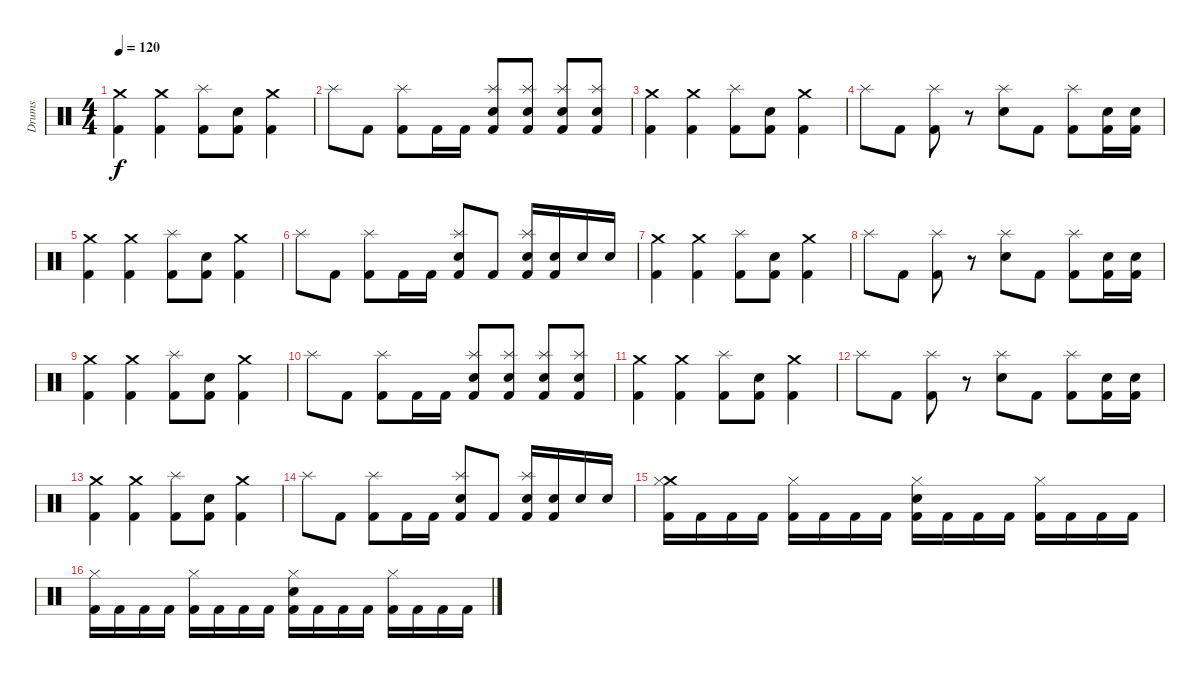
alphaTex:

\track ("Drums" "Drums") {instrument percussion}
\staff {score}
\articulation defaults
\ts (4 4)
\tempo 120
\clef neutral
\ks c
("Crash medium (hit)" "Kick (hit) 2").4{dy f} ("Crash medium (hit)" "Kick (hit) 2").4 ("Splash (hit)" "Kick (hit) 2").8 ("Snare (hit) 2" "Kick (hit) 2").8 ("Crash medium (hit)" "Kick (hit) 2").4 |
"Splash (hit)".8 "Kick (hit) 2".8 ("Splash (hit)" "Kick (hit) 2").8 "Kick (hit) 2".16 "Kick (hit) 2".16 ("Snare (hit) 2" "Splash (hit)" "Kick (hit) 2").8 ("Snare (hit) 2" "Splash (hit)" "Kick (hit) 2").8 ("Snare (hit) 2" "Splash (hit)" "Kick (hit) 2").8 ("Snare (hit) 2" "Splash (hit)" "Kick (hit) 2").8 |
("Crash medium (hit)" "Kick (hit) 2").4 ("Crash medium (hit)" "Kick (hit) 2").4 ("Splash (hit)" "Kick (hit) 2").8 ("Snare (hit) 2" "Kick (hit) 2").8 ("Crash medium (hit)" "Kick (hit) 2").4 |
"Splash (hit)".8 "Kick (hit) 2".8 ("Splash (hit)" "Kick (hit) 2").8 r.8 ("Snare (hit) 2" "Splash (hit)").8 "Kick (hit) 2".8 ("Splash (hit)" "Kick (hit) 2").8 ("Snare (hit) 2" "Kick (hit) 2").16 ("Snare (hit) 2" "Kick (hit) 2").16 |
("Crash medium (hit)" "Kick (hit) 2").4 ("Crash medium (hit)" "Kick (hit) 2").4 ("Splash (hit)" "Kick (hit) 2").8 ("Snare (hit) 2" "Kick (hit) 2").8 ("Crash medium (hit)" "Kick (hit) 2").4 |
"Splash (hit)".8 "Kick (hit) 2".8 ("Splash (hit)" "Kick (hit) 2").8 "Kick (hit) 2".16 "Kick (hit) 2".16 ("Snare (hit) 2" "Splash (hit)" "Kick (hit) 2").8 "Kick (hit) 2".8 ("Snare (hit) 2" "Splash (hit)" "Kick (hit) 2").16 ("Snare (hit) 2" "Kick (hit) 2").16 "Snare (hit) 2".16 "Snare (hit) 2".16 |
("Crash medium (hit)" "Kick (hit) 2").4 ("Crash medium (hit)" "Kick (hit) 2").4 ("Splash (hit)" "Kick (hit) 2").8 ("Snare (hit) 2" "Kick (hit) 2").8 ("Crash medium (hit)" "Kick (hit) 2").4 |
"Splash (hit)".8 "Kick (hit) 2".8 ("Splash (hit)" "Kick (hit) 2").8 r.8 ("Snare (hit) 2" "Splash (hit)").8 "Kick (hit) 2".8 ("Splash (hit)" "Kick (hit) 2").8 ("Snare (hit) 2" "Kick (hit) 2").16 ("Snare (hit) 2" "Kick (hit) 2").16 |
("Crash medium (hit)" "Kick (hit) 2").4 ("Crash medium (hit)" "Kick (hit) 2").4 ("Splash (hit)" "Kick (hit) 2").8 ("Snare (hit) 2" "Kick (hit) 2").8 ("Crash medium (hit)" "Kick (hit) 2").4 |
"Splash (hit)".8 "Kick (hit) 2".8 ("Splash (hit)" "Kick (hit) 2").8 "Kick (hit) 2".16 "Kick (hit) 2".16 ("Snare (hit) 2" "Splash (hit)" "Kick (hit) 2").8 ("Snare (hit) 2" "Splash (hit)" "Kick (hit) 2").8 ("Snare (hit) 2" "Splash (hit)" "Kick (hit) 2").8 ("Snare (hit) 2" "Splash (hit)" "Kick (hit) 2").8 |
("Crash medium (hit)" "Kick (hit) 2").4 ("Crash medium (hit)" "Kick (hit) 2").4 ("Splash (hit)" "Kick (hit) 2").8 ("Snare (hit) 2" "Kick (hit) 2").8 ("Crash medium (hit)" "Kick (hit) 2").4 |
"Splash (hit)".8 "Kick (hit) 2".8 ("Splash (hit)" "Kick (hit) 2").8 r.8 ("Snare (hit) 2" "Splash (hit)").8 "Kick (hit) 2".8 ("Splash (hit)" "Kick (hit) 2").8 ("Snare (hit) 2" "Kick (hit) 2").16 ("Snare (hit) 2" "Kick (hit) 2").16 |
("Crash medium (hit)" "Kick (hit) 2").4 ("Crash medium (hit)" "Kick (hit) 2").4 ("Splash (hit)" "Kick (hit) 2").8 ("Snare (hit) 2" "Kick (hit) 2").8 ("Crash medium (hit)" "Kick (hit) 2").4 |
"Splash (hit)".8 "Kick (hit) 2".8 ("Splash (hit)" "Kick (hit) 2").8 "Kick (hit) 2".16 "Kick (hit) 2".16 ("Snare (hit) 2" "Splash (hit)" "Kick (hit) 2").8 "Kick (hit) 2".8 ("Snare (hit) 2" "Splash (hit)" "Kick (hit) 2").16 ("Snare (hit) 2" "Kick (hit) 2").16 "Snare (hit) 2".16 "Snare (hit) 2".16 |
("Kick (hit) 2" "Crash medium (hit)" "Hi-Hat (closed)").16 "Kick (hit) 2".16 "Kick (hit) 2".16 "Kick (hit) 2".16 ("Kick (hit) 2" "Hi-Hat (closed)").16 "Kick (hit) 2".16 "Kick (hit) 2".16 "Kick (hit) 2".16 ("Kick (hit) 2" "Snare (hit) 2" "Hi-Hat (closed)").16 "Kick (hit) 2".16 "Kick (hit) 2".16 "Kick (hit) 2".16 ("Kick (hit) 2" "Hi-Hat (closed)").16 "Kick (hit) 2".16 "Kick (hit) 2".16 "Kick (hit) 2".16 |
("Kick (hit) 2" "Hi-Hat (closed)").16 "Kick (hit) 2".16 "Kick (hit) 2".16 "Kick (hit) 2".16 ("Kick (hit) 2" "Hi-Hat (closed)").16 "Kick (hit) 2".16 "Kick (hit) 2".16 "Kick (hit) 2".16 ("Kick (hit) 2" "Snare (hit) 2" "Hi-Hat (closed)").16 "Kick (hit) 2".16 "Kick (hit) 2".16 "Kick (hit) 2".16 ("Kick (hit) 2" "Hi-Hat (closed)").16 "Kick (hit) 2".16 "Kick (hit) 2".16 "Kick (hit) 2".16
